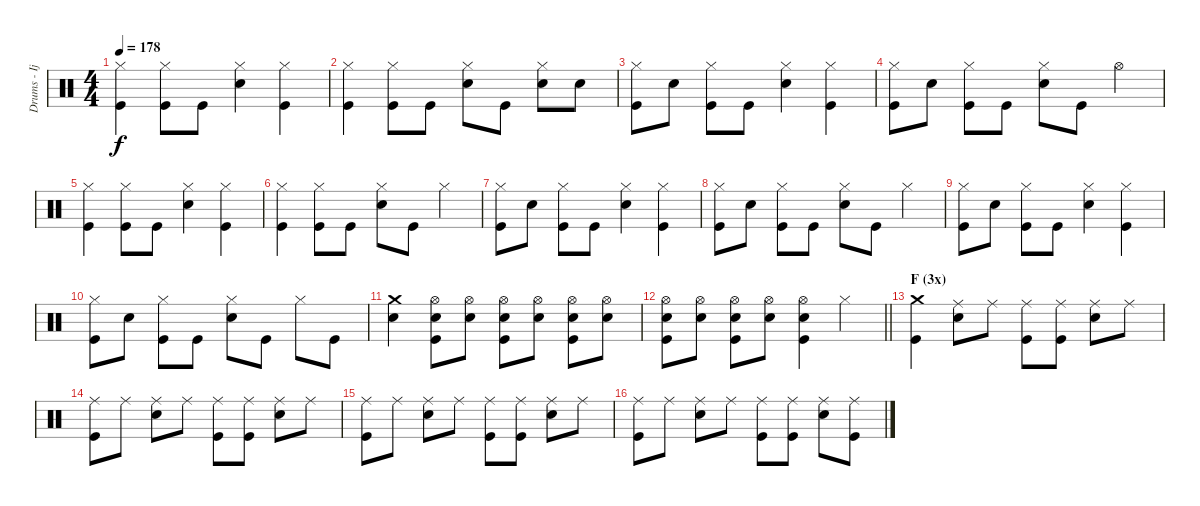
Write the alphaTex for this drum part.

\track ("Drums - Ijichi" "Drums - Ij") {instrument percussion}
\staff {score}
\articulation defaults
\ts (4 4)
\tempo 178
\clef neutral
\ks c
("Hi-Hat (closed)" "Kick (hit)").4{dy f} ("Hi-Hat (closed)" "Kick (hit)").8 "Kick (hit)".8 ("Hi-Hat (closed)" "Electric Snare (hit)").4 ("Hi-Hat (closed)" "Kick (hit)").4 |
("Hi-Hat (closed)" "Kick (hit)").4 ("Hi-Hat (closed)" "Kick (hit)").8 "Kick (hit)".8 ("Hi-Hat (closed)" "Electric Snare (hit)").8 "Kick (hit)".8 ("Hi-Hat (closed)" "Electric Snare (hit)").8 "Electric Snare (hit)".8 |
("Hi-Hat (closed)" "Kick (hit)").8 "Electric Snare (hit)".8 ("Hi-Hat (closed)" "Kick (hit)").8 "Kick (hit)".8 ("Hi-Hat (closed)" "Electric Snare (hit)").4 ("Hi-Hat (closed)" "Kick (hit)").4 |
("Hi-Hat (closed)" "Kick (hit)").8 "Electric Snare (hit)".8 ("Hi-Hat (closed)" "Kick (hit)").8 "Kick (hit)".8 ("Hi-Hat (closed)" "Electric Snare (hit)").8 "Kick (hit)".8 "Hi-Hat (open)".4 |
("Hi-Hat (closed)" "Kick (hit)").4 ("Hi-Hat (closed)" "Kick (hit)").8 "Kick (hit)".8 ("Hi-Hat (closed)" "Electric Snare (hit)").4 ("Hi-Hat (closed)" "Kick (hit)").4 |
("Hi-Hat (closed)" "Kick (hit)").4 ("Hi-Hat (closed)" "Kick (hit)").8 "Kick (hit)".8 ("Hi-Hat (closed)" "Electric Snare (hit)").8 "Kick (hit)".8 "Hi-Hat (closed)".4 |
("Hi-Hat (closed)" "Kick (hit)").8 "Electric Snare (hit)".8 ("Hi-Hat (closed)" "Kick (hit)").8 "Kick (hit)".8 ("Hi-Hat (closed)" "Electric Snare (hit)").4 ("Hi-Hat (closed)" "Kick (hit)").4 |
("Hi-Hat (closed)" "Kick (hit)").8 "Electric Snare (hit)".8 ("Hi-Hat (closed)" "Kick (hit)").8 "Kick (hit)".8 ("Hi-Hat (closed)" "Electric Snare (hit)").8 "Kick (hit)".8 "Hi-Hat (closed)".4 |
("Hi-Hat (closed)" "Kick (hit)").8 "Electric Snare (hit)".8 ("Hi-Hat (closed)" "Kick (hit)").8 "Kick (hit)".8 ("Hi-Hat (closed)" "Electric Snare (hit)").4 ("Hi-Hat (closed)" "Kick (hit)").4 |
("Hi-Hat (closed)" "Kick (hit)").8 "Electric Snare (hit)".8 ("Hi-Hat (closed)" "Kick (hit)").8 "Kick (hit)".8 ("Hi-Hat (closed)" "Electric Snare (hit)").8 "Kick (hit)".8 "Hi-Hat (closed)".8 "Kick (hit)".8 |
("Crash medium (hit)" "Electric Snare (hit)").4 ("Hi-Hat (open)" "Electric Snare (hit)" "Kick (hit)").8{volume 10} ("Hi-Hat (open)" "Electric Snare (hit)").8{volume 13} ("Hi-Hat (open)" "Electric Snare (hit)" "Kick (hit)").8 ("Hi-Hat (open)" "Electric Snare (hit)").8 ("Hi-Hat (open)" "Electric Snare (hit)" "Kick (hit)").8 ("Hi-Hat (open)" "Electric Snare (hit)").8 |
\barLineRight lightlight
("Hi-Hat (open)" "Electric Snare (hit)" "Kick (hit)").8 ("Hi-Hat (open)" "Electric Snare (hit)").8 ("Hi-Hat (open)" "Electric Snare (hit)" "Kick (hit)").8 ("Hi-Hat (open)" "Electric Snare (hit)").8 ("Hi-Hat (open)" "Electric Snare (hit)" "Kick (hit)").4 "Hi-Hat (closed)".4 |
\section ("" "F (3x)")
("Crash medium (hit)" "Kick (hit)").4 ("Ride (middle)" "Electric Snare (hit)").8 "Ride (middle)".8 ("Ride (middle)" "Kick (hit)").8 ("Ride (middle)" "Kick (hit)").8 ("Ride (middle)" "Electric Snare (hit)").8 "Ride (middle)".8 |
("Ride (middle)" "Kick (hit)").8 "Ride (middle)".8 ("Ride (middle)" "Electric Snare (hit)").8 "Ride (middle)".8 ("Ride (middle)" "Kick (hit)").8 ("Ride (middle)" "Kick (hit)").8 ("Ride (middle)" "Electric Snare (hit)").8 "Ride (middle)".8 |
("Ride (middle)" "Kick (hit)").8 "Ride (middle)".8 ("Ride (middle)" "Electric Snare (hit)").8 "Ride (middle)".8 ("Ride (middle)" "Kick (hit)").8 ("Ride (middle)" "Kick (hit)").8 ("Ride (middle)" "Electric Snare (hit)").8 "Ride (middle)".8 |
("Ride (middle)" "Kick (hit)").8 "Ride (middle)".8 ("Ride (middle)" "Electric Snare (hit)").8 "Ride (middle)".8 ("Ride (middle)" "Kick (hit)").8 ("Ride (middle)" "Kick (hit)").8 ("Ride (middle)" "Electric Snare (hit)").8 ("Ride (middle)" "Kick (hit)").8
